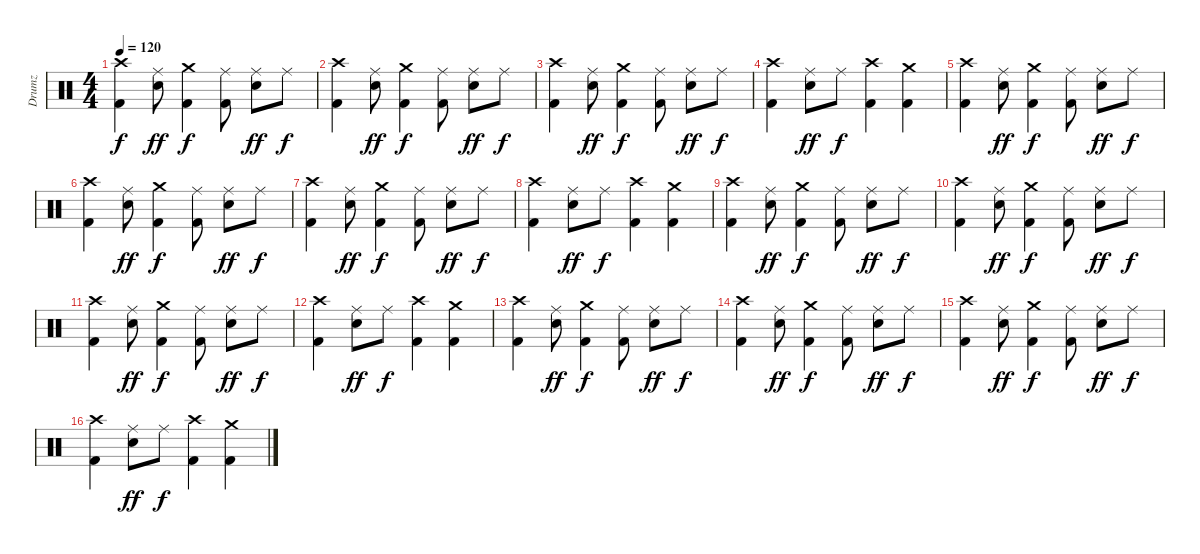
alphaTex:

\track ("Drumz" "Drumz") {instrument percussion}
\staff {score}
\articulation defaults
\ts (4 4)
\tempo 120
\clef neutral
\ks c
("Crash high (hit)" "Kick (hit) 2").4{dy f} ("Ride (middle)" "Snare (hit) 2").8{dy ff} ("Crash medium (hit)" "Kick (hit) 2").4{dy f} ("Ride (middle)" "Kick (hit) 2").8 ("Ride (middle)" "Snare (hit) 2").8{dy ff} "Ride (middle)".8{dy f} |
("Crash high (hit)" "Kick (hit) 2").4 ("Ride (middle)" "Snare (hit) 2").8{dy ff} ("Crash medium (hit)" "Kick (hit) 2").4{dy f} ("Ride (middle)" "Kick (hit) 2").8 ("Ride (middle)" "Snare (hit) 2").8{dy ff} "Ride (middle)".8{dy f} |
("Crash high (hit)" "Kick (hit) 2").4 ("Ride (middle)" "Snare (hit) 2").8{dy ff} ("Crash medium (hit)" "Kick (hit) 2").4{dy f} ("Ride (middle)" "Kick (hit) 2").8 ("Ride (middle)" "Snare (hit) 2").8{dy ff} "Ride (middle)".8{dy f} |
("Crash high (hit)" "Kick (hit) 2").4 ("Ride (middle)" "Snare (hit) 2").8{dy ff} "Ride (middle)".8{dy f} ("Crash high (hit)" "Kick (hit) 2").4 ("Crash medium (hit)" "Kick (hit) 2").4 |
("Crash high (hit)" "Kick (hit) 2").4 ("Ride (middle)" "Snare (hit) 2").8{dy ff} ("Crash medium (hit)" "Kick (hit) 2").4{dy f} ("Ride (middle)" "Kick (hit) 2").8 ("Ride (middle)" "Snare (hit) 2").8{dy ff} "Ride (middle)".8{dy f} |
("Crash high (hit)" "Kick (hit) 2").4 ("Ride (middle)" "Snare (hit) 2").8{dy ff} ("Crash medium (hit)" "Kick (hit) 2").4{dy f} ("Ride (middle)" "Kick (hit) 2").8 ("Ride (middle)" "Snare (hit) 2").8{dy ff} "Ride (middle)".8{dy f} |
("Crash high (hit)" "Kick (hit) 2").4 ("Ride (middle)" "Snare (hit) 2").8{dy ff} ("Crash medium (hit)" "Kick (hit) 2").4{dy f} ("Ride (middle)" "Kick (hit) 2").8 ("Ride (middle)" "Snare (hit) 2").8{dy ff} "Ride (middle)".8{dy f} |
("Crash high (hit)" "Kick (hit) 2").4 ("Ride (middle)" "Snare (hit) 2").8{dy ff} "Ride (middle)".8{dy f} ("Crash high (hit)" "Kick (hit) 2").4 ("Crash medium (hit)" "Kick (hit) 2").4 |
("Crash high (hit)" "Kick (hit) 2").4 ("Ride (middle)" "Snare (hit) 2").8{dy ff} ("Crash medium (hit)" "Kick (hit) 2").4{dy f} ("Ride (middle)" "Kick (hit) 2").8 ("Ride (middle)" "Snare (hit) 2").8{dy ff} "Ride (middle)".8{dy f} |
("Crash high (hit)" "Kick (hit) 2").4 ("Ride (middle)" "Snare (hit) 2").8{dy ff} ("Crash medium (hit)" "Kick (hit) 2").4{dy f} ("Ride (middle)" "Kick (hit) 2").8 ("Ride (middle)" "Snare (hit) 2").8{dy ff} "Ride (middle)".8{dy f} |
("Crash high (hit)" "Kick (hit) 2").4 ("Ride (middle)" "Snare (hit) 2").8{dy ff} ("Crash medium (hit)" "Kick (hit) 2").4{dy f} ("Ride (middle)" "Kick (hit) 2").8 ("Ride (middle)" "Snare (hit) 2").8{dy ff} "Ride (middle)".8{dy f} |
("Crash high (hit)" "Kick (hit) 2").4 ("Ride (middle)" "Snare (hit) 2").8{dy ff} "Ride (middle)".8{dy f} ("Crash high (hit)" "Kick (hit) 2").4 ("Crash medium (hit)" "Kick (hit) 2").4 |
("Crash high (hit)" "Kick (hit) 2").4 ("Ride (middle)" "Snare (hit) 2").8{dy ff} ("Crash medium (hit)" "Kick (hit) 2").4{dy f} ("Ride (middle)" "Kick (hit) 2").8 ("Ride (middle)" "Snare (hit) 2").8{dy ff} "Ride (middle)".8{dy f} |
("Crash high (hit)" "Kick (hit) 2").4 ("Ride (middle)" "Snare (hit) 2").8{dy ff} ("Crash medium (hit)" "Kick (hit) 2").4{dy f} ("Ride (middle)" "Kick (hit) 2").8 ("Ride (middle)" "Snare (hit) 2").8{dy ff} "Ride (middle)".8{dy f} |
("Crash high (hit)" "Kick (hit) 2").4 ("Ride (middle)" "Snare (hit) 2").8{dy ff} ("Crash medium (hit)" "Kick (hit) 2").4{dy f} ("Ride (middle)" "Kick (hit) 2").8 ("Ride (middle)" "Snare (hit) 2").8{dy ff} "Ride (middle)".8{dy f} |
("Crash high (hit)" "Kick (hit) 2").4 ("Ride (middle)" "Snare (hit) 2").8{dy ff} "Ride (middle)".8{dy f} ("Crash high (hit)" "Kick (hit) 2").4 ("Crash medium (hit)" "Kick (hit) 2").4
